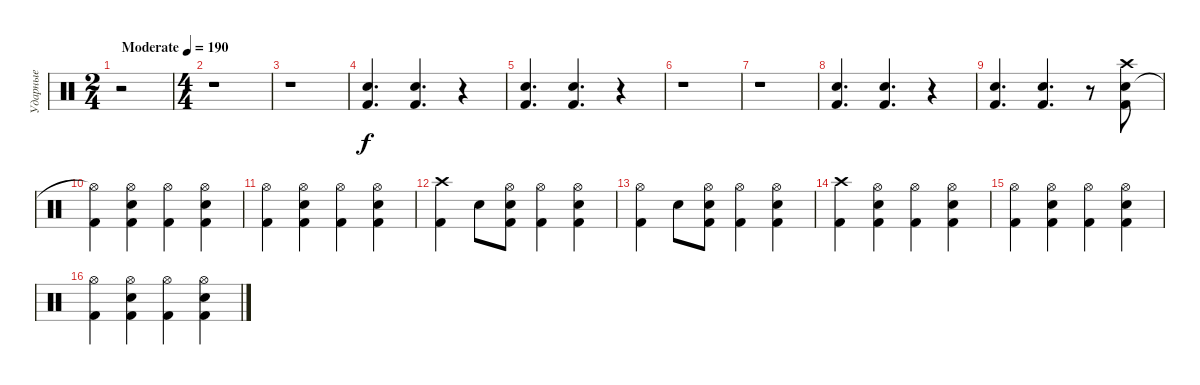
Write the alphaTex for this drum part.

\track ("Ударные" "Ударные") {instrument percussion}
\staff
\articulation defaults
\ts (2 4)
\tempo (190 "Moderate")
\clef neutral
\ks c
r.2{dy f} |
\ts (4 4)
r.1 |
r.1 |
("Kick (hit) 2" "Snare (hit) 2").4{d} ("Kick (hit) 2" "Snare (hit) 2").4{d} r.4 |
("Kick (hit) 2" "Snare (hit) 2").4{d} ("Kick (hit) 2" "Snare (hit) 2").4{d} r.4 |
r.1 |
r.1 |
("Kick (hit) 2" "Snare (hit) 2").4{d} ("Kick (hit) 2" "Snare (hit) 2").4{d} r.4 |
("Kick (hit) 2" "Snare (hit) 2").4{d} ("Kick (hit) 2" "Snare (hit) 2").4{d} r.8 ("Kick (hit) 2" "Snare (hit) 2" "Crash high (hit)").8 |
("Kick (hit) 2" "Hi-Hat (open)"{t}).4 ("Kick (hit) 2" "Snare (hit) 2" "Hi-Hat (open)").4 ("Kick (hit) 2" "Hi-Hat (open)").4 ("Kick (hit) 2" "Snare (hit) 2" "Hi-Hat (open)").4 |
("Kick (hit) 2" "Hi-Hat (open)").4 ("Kick (hit) 2" "Snare (hit) 2" "Hi-Hat (open)").4 ("Kick (hit) 2" "Hi-Hat (open)").4 ("Kick (hit) 2" "Snare (hit) 2" "Hi-Hat (open)").4 |
("Kick (hit) 2" "Crash high (hit)").4 "Snare (hit) 2".8 ("Kick (hit) 2" "Snare (hit) 2" "Hi-Hat (open)").8 ("Kick (hit) 2" "Hi-Hat (open)").4 ("Kick (hit) 2" "Snare (hit) 2" "Hi-Hat (open)").4 |
("Kick (hit) 2" "Hi-Hat (open)").4 "Snare (hit) 2".8 ("Kick (hit) 2" "Snare (hit) 2" "Hi-Hat (open)").8 ("Kick (hit) 2" "Hi-Hat (open)").4 ("Kick (hit) 2" "Snare (hit) 2" "Hi-Hat (open)").4 |
("Kick (hit) 2" "Crash high (hit)").4 ("Kick (hit) 2" "Snare (hit) 2" "Hi-Hat (open)").4 ("Kick (hit) 2" "Hi-Hat (open)").4 ("Kick (hit) 2" "Snare (hit) 2" "Hi-Hat (open)").4 |
("Kick (hit) 2" "Hi-Hat (open)").4 ("Kick (hit) 2" "Snare (hit) 2" "Hi-Hat (open)").4 ("Kick (hit) 2" "Hi-Hat (open)").4 ("Kick (hit) 2" "Snare (hit) 2" "Hi-Hat (open)").4 |
("Kick (hit) 2" "Hi-Hat (open)").4 ("Kick (hit) 2" "Snare (hit) 2" "Hi-Hat (open)").4 ("Kick (hit) 2" "Hi-Hat (open)").4 ("Kick (hit) 2" "Snare (hit) 2" "Hi-Hat (open)").4
